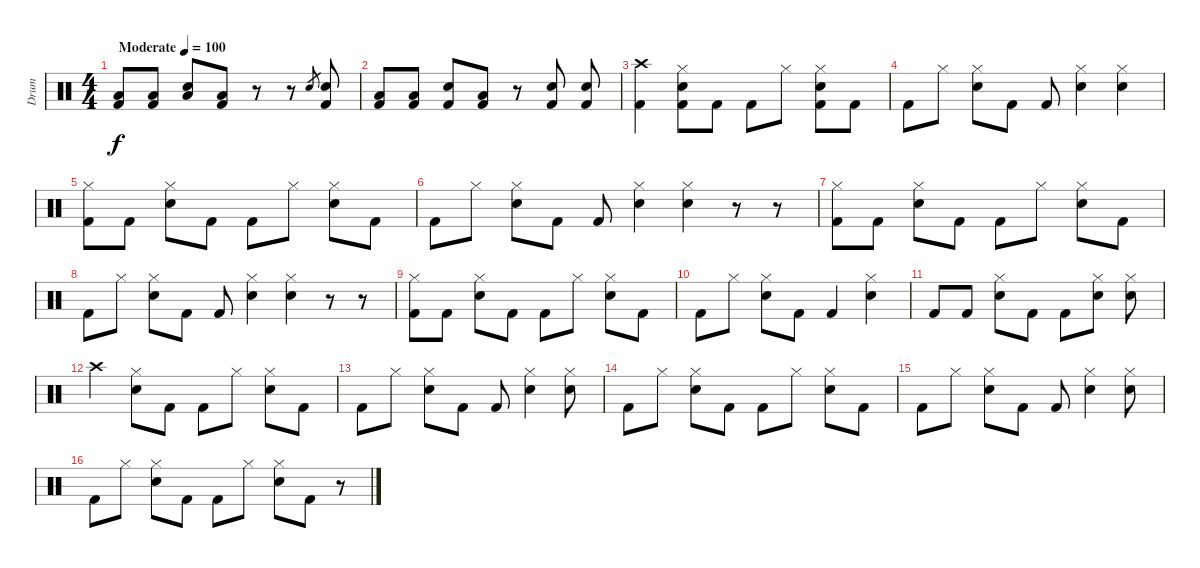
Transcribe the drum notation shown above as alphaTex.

\track ("Drum" "Drum") {instrument percussion}
\staff {score}
\articulation defaults
\ts (4 4)
\tempo (100 "Moderate")
\clef neutral
\ks c
("Kick (hit) 2" "Low Floor Tom (hit)").8{dy f} ("Kick (hit) 2" "Low Floor Tom (hit)").8 ("Electric Snare (hit)" "Low Floor Tom (hit)").8 ("Kick (hit) 2" "Low Floor Tom (hit)").8 r.8 r.8 "Electric Snare (hit)".8{gr} ("Electric Snare (hit)" "Kick (hit) 2").8 |
("Kick (hit) 2" "Low Floor Tom (hit)").8 ("Kick (hit) 2" "Low Floor Tom (hit)").8 ("Electric Snare (hit)" "Kick (hit) 2").8 ("Kick (hit) 2" "Low Floor Tom (hit)").8 r.8 ("Electric Snare (hit)" "Kick (hit) 2").8 ("Electric Snare (hit)" "Kick (hit) 2").8 |
("Crash high (hit)" "Kick (hit) 2").4 ("Hi-Hat (closed)" "Electric Snare (hit)" "Kick (hit) 2").8 "Kick (hit) 2".8 "Kick (hit) 2".8 "Hi-Hat (closed)".8 ("Hi-Hat (closed)" "Electric Snare (hit)" "Kick (hit) 2").8 "Kick (hit) 2".8 |
"Kick (hit) 2".8 "Hi-Hat (closed)".8 ("Hi-Hat (closed)" "Electric Snare (hit)").8 "Kick (hit) 2".8 "Kick (hit) 2".8 ("Hi-Hat (closed)" "Electric Snare (hit)").4 ("Hi-Hat (closed)" "Electric Snare (hit)").4 |
("Hi-Hat (closed)" "Kick (hit) 2").8 "Kick (hit) 2".8 ("Hi-Hat (closed)" "Electric Snare (hit)").8 "Kick (hit) 2".8 "Kick (hit) 2".8 "Hi-Hat (closed)".8 ("Hi-Hat (closed)" "Electric Snare (hit)").8 "Kick (hit) 2".8 |
"Kick (hit) 2".8 "Hi-Hat (closed)".8 ("Hi-Hat (closed)" "Electric Snare (hit)").8 "Kick (hit) 2".8 "Kick (hit) 2".8 ("Hi-Hat (closed)" "Electric Snare (hit)").4 ("Hi-Hat (closed)" "Electric Snare (hit)").4 r.8 r.8 |
("Hi-Hat (closed)" "Kick (hit) 2").8 "Kick (hit) 2".8 ("Hi-Hat (closed)" "Electric Snare (hit)").8 "Kick (hit) 2".8 "Kick (hit) 2".8 "Hi-Hat (closed)".8 ("Hi-Hat (closed)" "Electric Snare (hit)").8 "Kick (hit) 2".8 |
"Kick (hit) 2".8 "Hi-Hat (closed)".8 ("Hi-Hat (closed)" "Electric Snare (hit)").8 "Kick (hit) 2".8 "Kick (hit) 2".8 ("Hi-Hat (closed)" "Electric Snare (hit)").4 ("Hi-Hat (closed)" "Electric Snare (hit)").4 r.8 r.8 |
("Hi-Hat (closed)" "Kick (hit) 2").8 "Kick (hit) 2".8 ("Hi-Hat (closed)" "Electric Snare (hit)").8 "Kick (hit) 2".8 "Kick (hit) 2".8 "Hi-Hat (closed)".8 ("Hi-Hat (closed)" "Electric Snare (hit)").8 "Kick (hit) 2".8 |
"Kick (hit) 2".8 "Hi-Hat (closed)".8 ("Hi-Hat (closed)" "Electric Snare (hit)").8 "Kick (hit) 2".8 "Kick (hit) 2".4 ("Hi-Hat (closed)" "Electric Snare (hit)").4 |
"Kick (hit) 2".8 "Kick (hit) 2".8 ("Hi-Hat (closed)" "Electric Snare (hit)").8 "Kick (hit) 2".8 "Kick (hit) 2".8 ("Hi-Hat (closed)" "Electric Snare (hit)").8 ("Hi-Hat (closed)" "Electric Snare (hit)").8 |
"Crash high (hit)".4 ("Hi-Hat (closed)" "Electric Snare (hit)").8 "Kick (hit) 2".8 "Kick (hit) 2".8 "Hi-Hat (closed)".8 ("Hi-Hat (closed)" "Electric Snare (hit)").8 "Kick (hit) 2".8 |
"Kick (hit) 2".8 "Hi-Hat (closed)".8 ("Hi-Hat (closed)" "Electric Snare (hit)").8 "Kick (hit) 2".8 "Kick (hit) 2".8 ("Hi-Hat (closed)" "Electric Snare (hit)").4 ("Hi-Hat (closed)" "Electric Snare (hit)").8 |
"Kick (hit) 2".8 "Hi-Hat (closed)".8 ("Hi-Hat (closed)" "Electric Snare (hit)").8 "Kick (hit) 2".8 "Kick (hit) 2".8 "Hi-Hat (closed)".8 ("Hi-Hat (closed)" "Electric Snare (hit)").8 "Kick (hit) 2".8 |
"Kick (hit) 2".8 "Hi-Hat (closed)".8 ("Hi-Hat (closed)" "Electric Snare (hit)").8 "Kick (hit) 2".8 "Kick (hit) 2".8 ("Hi-Hat (closed)" "Electric Snare (hit)").4 ("Hi-Hat (closed)" "Electric Snare (hit)").8 |
"Kick (hit) 2".8 "Hi-Hat (closed)".8 ("Hi-Hat (closed)" "Electric Snare (hit)").8 "Kick (hit) 2".8 "Kick (hit) 2".8 "Hi-Hat (closed)".8 ("Hi-Hat (closed)" "Electric Snare (hit)").8 "Kick (hit) 2".8 r.8
